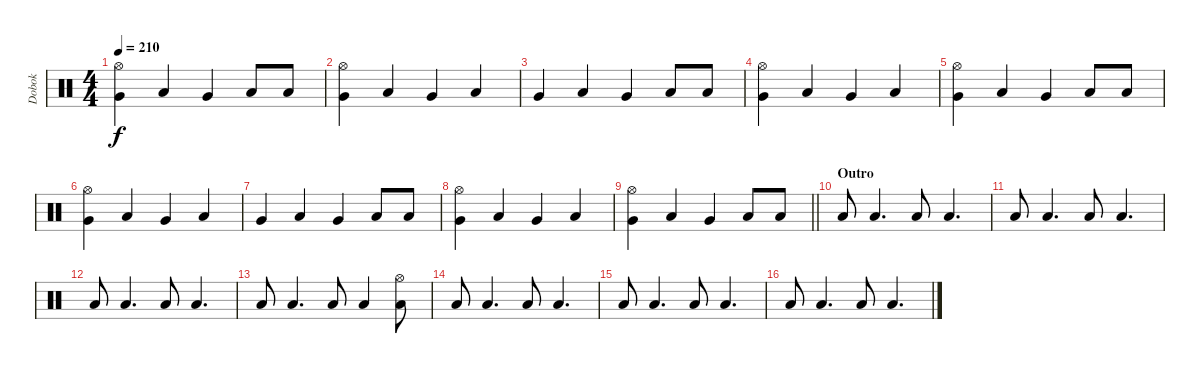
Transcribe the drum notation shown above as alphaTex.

\track ("Dobok" "Dobok") {instrument percussion}
\staff {score}
\articulation defaults
\ts (4 4)
\tempo 210
\clef neutral
\ks c
("Hi-Hat (open)" "Very Low Tom (hit)").4{dy f} "Low Tom (hit)".4 "Very Low Tom (hit)".4 "Low Tom (hit)".8 "Low Tom (hit)".8 |
("Hi-Hat (open)" "Very Low Tom (hit)").4 "Low Tom (hit)".4 "Very Low Tom (hit)".4 "Low Tom (hit)".4 |
"Very Low Tom (hit)".4 "Low Tom (hit)".4 "Very Low Tom (hit)".4 "Low Tom (hit)".8 "Low Tom (hit)".8 |
("Hi-Hat (open)" "Very Low Tom (hit)").4 "Low Tom (hit)".4 "Very Low Tom (hit)".4 "Low Tom (hit)".4 |
("Hi-Hat (open)" "Very Low Tom (hit)").4 "Low Tom (hit)".4 "Very Low Tom (hit)".4 "Low Tom (hit)".8 "Low Tom (hit)".8 |
("Hi-Hat (open)" "Very Low Tom (hit)").4 "Low Tom (hit)".4 "Very Low Tom (hit)".4 "Low Tom (hit)".4 |
"Very Low Tom (hit)".4 "Low Tom (hit)".4 "Very Low Tom (hit)".4 "Low Tom (hit)".8 "Low Tom (hit)".8 |
("Hi-Hat (open)" "Very Low Tom (hit)").4 "Low Tom (hit)".4 "Very Low Tom (hit)".4 "Low Tom (hit)".4 |
\barLineRight lightlight
("Hi-Hat (open)" "Very Low Tom (hit)").4 "Low Tom (hit)".4 "Very Low Tom (hit)".4 "Low Tom (hit)".8 "Low Tom (hit)".8 |
\section ("" "Outro")
"Low Floor Tom (hit)".8 "Low Floor Tom (hit)".4{d} "Low Floor Tom (hit)".8 "Low Floor Tom (hit)".4{d} |
"Low Tom (hit)".8 "Low Tom (hit)".4{d} "Low Tom (hit)".8 "Low Tom (hit)".4{d} |
"Low Floor Tom (hit)".8 "Low Floor Tom (hit)".4{d} "Low Floor Tom (hit)".8 "Low Floor Tom (hit)".4{d} |
"Low Tom (hit)".8 "Low Tom (hit)".4{d} "Low Tom (hit)".8 "Low Tom (hit)".4 ("Hi-Hat (open)" "Low Tom (hit)").8 |
"Low Floor Tom (hit)".8 "Low Floor Tom (hit)".4{d} "Low Floor Tom (hit)".8 "Low Floor Tom (hit)".4{d} |
"Low Tom (hit)".8 "Low Tom (hit)".4{d} "Low Tom (hit)".8 "Low Tom (hit)".4{d} |
"Low Floor Tom (hit)".8 "Low Floor Tom (hit)".4{d} "Low Floor Tom (hit)".8 "Low Floor Tom (hit)".4{d}
